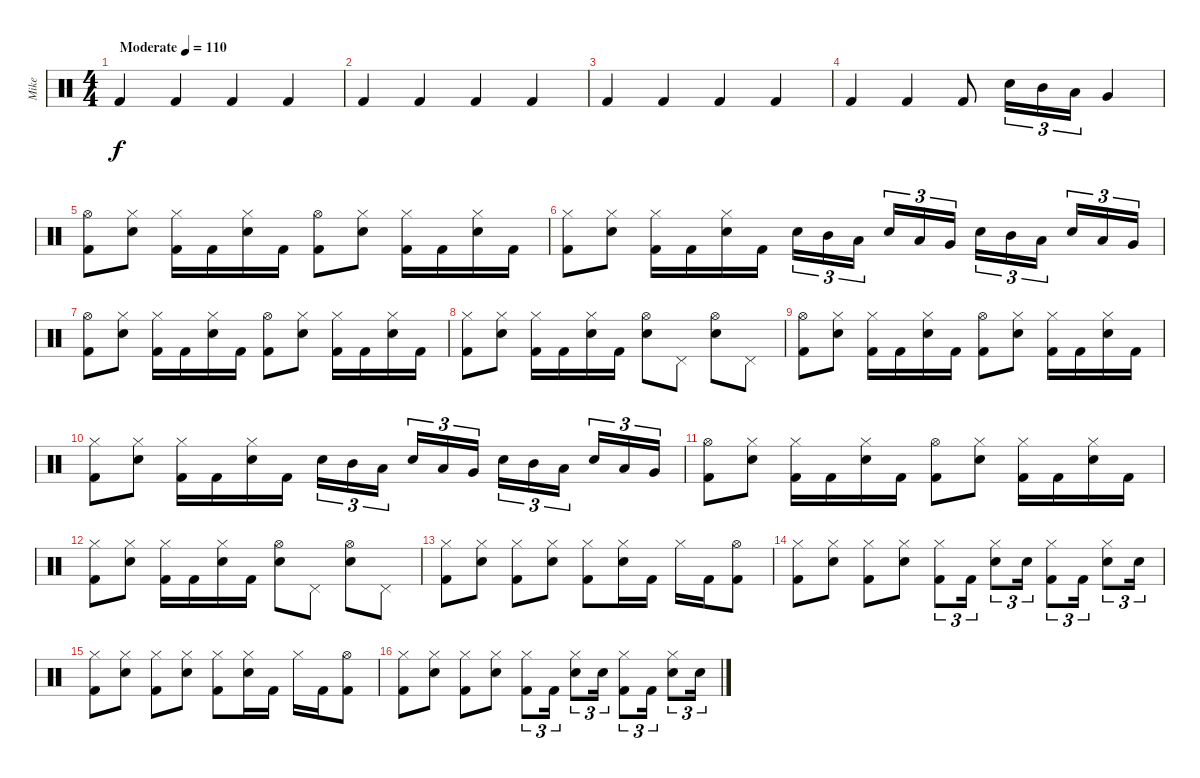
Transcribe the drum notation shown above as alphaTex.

\track ("Mike" "Mike") {instrument percussion}
\staff {score}
\articulation defaults
\ts (4 4)
\tempo (110 "Moderate")
\clef neutral
\ks c "Kick (hit) 2".4{dy f} "Kick (hit) 2".4 "Kick (hit) 2".4 "Kick (hit) 2".4
|
"Kick (hit) 2".4 "Kick (hit) 2".4 "Kick (hit) 2".4 "Kick (hit) 2".4 |
"Kick (hit) 2".4 "Kick (hit) 2".4 "Kick (hit) 2".4 "Kick (hit) 2".4 |
"Kick (hit) 2".4 "Kick (hit) 2".4 "Kick (hit) 2".8 "Electric Snare (hit)".16{tu (3 2)} "Mid Tom (hit)".16{tu (3 2)} "Low Tom (hit)".16{tu (3 2)} "Very Low Tom (hit)".4 |
("Hi-Hat (open)" "Kick (hit) 2").8 ("Hi-Hat (closed)" "Electric Snare (hit)").8 ("Hi-Hat (closed)" "Kick (hit) 2").16 "Kick (hit) 2".16 ("Hi-Hat (closed)" "Electric Snare (hit)").16 "Kick (hit) 2".16 ("Hi-Hat (open)" "Kick (hit) 2").8 ("Hi-Hat (closed)" "Electric Snare (hit)").8 ("Hi-Hat (closed)" "Kick (hit) 2").16 "Kick (hit) 2".16 ("Hi-Hat (closed)" "Electric Snare (hit)").16 "Kick (hit) 2".16 |
("Hi-Hat (closed)" "Kick (hit) 2").8 ("Hi-Hat (closed)" "Electric Snare (hit)").8 ("Hi-Hat (closed)" "Kick (hit) 2").16 "Kick (hit) 2".16 ("Hi-Hat (closed)" "Electric Snare (hit)").16 "Kick (hit) 2".16 "Electric Snare (hit)".16{tu (3 2)} "Mid Tom (hit)".16{tu (3 2)} "Low Tom (hit)".16{tu (3 2) beam splitsecondary} "Electric Snare (hit)".16{tu (3 2)} "Low Tom (hit)".16{tu (3 2)} "Very Low Tom (hit)".16{tu (3 2)} "Electric Snare (hit)".16{tu (3 2)} "Mid Tom (hit)".16{tu (3 2)} "Low Tom (hit)".16{tu (3 2) beam splitsecondary} "Electric Snare (hit)".16{tu (3 2)} "Low Tom (hit)".16{tu (3 2)} "Very Low Tom (hit)".16{tu (3 2)} |
("Hi-Hat (open)" "Kick (hit) 2").8 ("Hi-Hat (closed)" "Electric Snare (hit)").8 ("Hi-Hat (closed)" "Kick (hit) 2").16 "Kick (hit) 2".16 ("Hi-Hat (closed)" "Electric Snare (hit)").16 "Kick (hit) 2".16 ("Hi-Hat (open)" "Kick (hit) 2").8 ("Hi-Hat (closed)" "Electric Snare (hit)").8 ("Hi-Hat (closed)" "Kick (hit) 2").16 "Kick (hit) 2".16 ("Hi-Hat (closed)" "Electric Snare (hit)").16 "Kick (hit) 2".16 |
("Hi-Hat (closed)" "Kick (hit) 2").8 ("Hi-Hat (closed)" "Electric Snare (hit)").8 ("Hi-Hat (closed)" "Kick (hit) 2").16 "Kick (hit) 2".16 ("Hi-Hat (closed)" "Electric Snare (hit)").16 "Kick (hit) 2".16 ("Hi-Hat (open)" "Electric Snare (hit)").8 "Pedal Hi-Hat (hit)".8 ("Hi-Hat (open)" "Electric Snare (hit)").8 "Pedal Hi-Hat (hit)".8 |
("Hi-Hat (open)" "Kick (hit) 2").8 ("Hi-Hat (closed)" "Electric Snare (hit)").8 ("Hi-Hat (closed)" "Kick (hit) 2").16 "Kick (hit) 2".16 ("Hi-Hat (closed)" "Electric Snare (hit)").16 "Kick (hit) 2".16 ("Hi-Hat (open)" "Kick (hit) 2").8 ("Hi-Hat (closed)" "Electric Snare (hit)").8 ("Hi-Hat (closed)" "Kick (hit) 2").16 "Kick (hit) 2".16 ("Hi-Hat (closed)" "Electric Snare (hit)").16 "Kick (hit) 2".16 |
("Hi-Hat (closed)" "Kick (hit) 2").8 ("Hi-Hat (closed)" "Electric Snare (hit)").8 ("Hi-Hat (closed)" "Kick (hit) 2").16 "Kick (hit) 2".16 ("Hi-Hat (closed)" "Electric Snare (hit)").16 "Kick (hit) 2".16 "Electric Snare (hit)".16{tu (3 2)} "Mid Tom (hit)".16{tu (3 2)} "Low Tom (hit)".16{tu (3 2) beam splitsecondary} "Electric Snare (hit)".16{tu (3 2)} "Low Tom (hit)".16{tu (3 2)} "Very Low Tom (hit)".16{tu (3 2)} "Electric Snare (hit)".16{tu (3 2)} "Mid Tom (hit)".16{tu (3 2)} "Low Tom (hit)".16{tu (3 2) beam splitsecondary} "Electric Snare (hit)".16{tu (3 2)} "Low Tom (hit)".16{tu (3 2)} "Very Low Tom (hit)".16{tu (3 2)} |
("Hi-Hat (open)" "Kick (hit) 2").8 ("Hi-Hat (closed)" "Electric Snare (hit)").8 ("Hi-Hat (closed)" "Kick (hit) 2").16 "Kick (hit) 2".16 ("Hi-Hat (closed)" "Electric Snare (hit)").16 "Kick (hit) 2".16 ("Hi-Hat (open)" "Kick (hit) 2").8 ("Hi-Hat (closed)" "Electric Snare (hit)").8 ("Hi-Hat (closed)" "Kick (hit) 2").16 "Kick (hit) 2".16 ("Hi-Hat (closed)" "Electric Snare (hit)").16 "Kick (hit) 2".16 |
("Hi-Hat (closed)" "Kick (hit) 2").8 ("Hi-Hat (closed)" "Electric Snare (hit)").8 ("Hi-Hat (closed)" "Kick (hit) 2").16 "Kick (hit) 2".16 ("Hi-Hat (closed)" "Electric Snare (hit)").16 "Kick (hit) 2".16 ("Hi-Hat (open)" "Electric Snare (hit)").8 "Pedal Hi-Hat (hit)".8 ("Hi-Hat (open)" "Electric Snare (hit)").8 "Pedal Hi-Hat (hit)".8 |
("Hi-Hat (closed)" "Kick (hit) 2").8 ("Hi-Hat (closed)" "Electric Snare (hit)").8 ("Hi-Hat (closed)" "Kick (hit) 2").8 ("Hi-Hat (closed)" "Electric Snare (hit)").8 ("Hi-Hat (closed)" "Kick (hit) 2").8 ("Hi-Hat (closed)" "Electric Snare (hit)").16 "Kick (hit) 2".16 "Hi-Hat (closed)".16 "Kick (hit) 2".16 ("Hi-Hat (open)" "Kick (hit) 2").8 |
("Hi-Hat (closed)" "Kick (hit) 2").8 ("Hi-Hat (closed)" "Electric Snare (hit)").8 ("Hi-Hat (closed)" "Kick (hit) 2").8 ("Hi-Hat (closed)" "Electric Snare (hit)").8 ("Hi-Hat (closed)" "Kick (hit) 2").8{tu (3 2)} "Kick (hit) 2".16{tu (3 2)} ("Hi-Hat (closed)" "Electric Snare (hit)").8{tu (3 2)} "Electric Snare (hit)".16{tu (3 2)} ("Hi-Hat (closed)" "Kick (hit) 2").8{tu (3 2)} "Kick (hit) 2".16{tu (3 2)} ("Hi-Hat (closed)" "Electric Snare (hit)").8{tu (3 2)} "Electric Snare (hit)".16{tu (3 2)} |
("Hi-Hat (closed)" "Kick (hit) 2").8 ("Hi-Hat (closed)" "Electric Snare (hit)").8 ("Hi-Hat (closed)" "Kick (hit) 2").8 ("Hi-Hat (closed)" "Electric Snare (hit)").8 ("Hi-Hat (closed)" "Kick (hit) 2").8 ("Hi-Hat (closed)" "Electric Snare (hit)").16 "Kick (hit) 2".16 "Hi-Hat (closed)".16 "Kick (hit) 2".16 ("Hi-Hat (open)" "Kick (hit) 2").8 |
("Hi-Hat (closed)" "Kick (hit) 2").8 ("Hi-Hat (closed)" "Electric Snare (hit)").8 ("Hi-Hat (closed)" "Kick (hit) 2").8 ("Hi-Hat (closed)" "Electric Snare (hit)").8 ("Hi-Hat (closed)" "Kick (hit) 2").8{tu (3 2)} "Kick (hit) 2".16{tu (3 2)} ("Hi-Hat (closed)" "Electric Snare (hit)").8{tu (3 2)} "Electric Snare (hit)".16{tu (3 2)} ("Hi-Hat (closed)" "Kick (hit) 2").8{tu (3 2)} "Kick (hit) 2".16{tu (3 2)} ("Hi-Hat (closed)" "Electric Snare (hit)").8{tu (3 2)} "Electric Snare (hit)".16{tu (3 2)}
